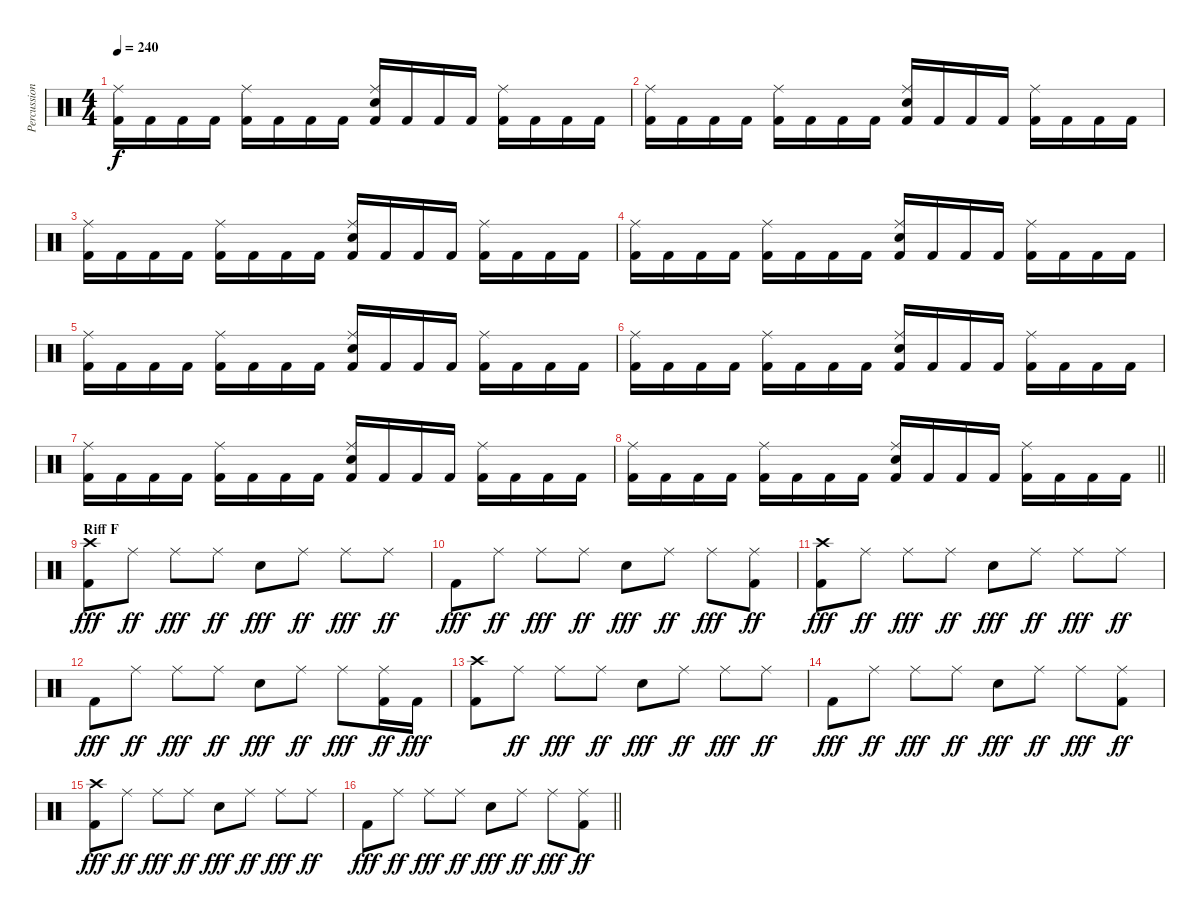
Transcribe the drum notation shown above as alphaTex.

\track ("Percussion" "Percussion") {instrument percussion}
\staff {score}
\articulation defaults
\ts (4 4)
\tempo 240
\clef neutral
\ks c
("Kick (hit) 2" "Ride (middle)").16{dy f} "Kick (hit) 2".16 "Kick (hit) 2".16 "Kick (hit) 2".16 ("Kick (hit) 2" "Ride (middle)").16 "Kick (hit) 2".16 "Kick (hit) 2".16 "Kick (hit) 2".16 ("Kick (hit) 2" "Ride (middle)" "Snare (hit) 2").16 "Kick (hit) 2".16 "Kick (hit) 2".16 "Kick (hit) 2".16 ("Kick (hit) 2" "Ride (middle)").16 "Kick (hit) 2".16 "Kick (hit) 2".16 "Kick (hit) 2".16 |
("Kick (hit) 2" "Ride (middle)").16 "Kick (hit) 2".16 "Kick (hit) 2".16 "Kick (hit) 2".16 ("Kick (hit) 2" "Ride (middle)").16 "Kick (hit) 2".16 "Kick (hit) 2".16 "Kick (hit) 2".16 ("Kick (hit) 2" "Ride (middle)" "Snare (hit) 2").16 "Kick (hit) 2".16 "Kick (hit) 2".16 "Kick (hit) 2".16 ("Kick (hit) 2" "Ride (middle)").16 "Kick (hit) 2".16 "Kick (hit) 2".16 "Kick (hit) 2".16 |
("Kick (hit) 2" "Ride (middle)").16 "Kick (hit) 2".16 "Kick (hit) 2".16 "Kick (hit) 2".16 ("Kick (hit) 2" "Ride (middle)").16 "Kick (hit) 2".16 "Kick (hit) 2".16 "Kick (hit) 2".16 ("Kick (hit) 2" "Ride (middle)" "Snare (hit) 2").16 "Kick (hit) 2".16 "Kick (hit) 2".16 "Kick (hit) 2".16 ("Kick (hit) 2" "Ride (middle)").16 "Kick (hit) 2".16 "Kick (hit) 2".16 "Kick (hit) 2".16 |
("Kick (hit) 2" "Ride (middle)").16 "Kick (hit) 2".16 "Kick (hit) 2".16 "Kick (hit) 2".16 ("Kick (hit) 2" "Ride (middle)").16 "Kick (hit) 2".16 "Kick (hit) 2".16 "Kick (hit) 2".16 ("Kick (hit) 2" "Ride (middle)" "Snare (hit) 2").16 "Kick (hit) 2".16 "Kick (hit) 2".16 "Kick (hit) 2".16 ("Kick (hit) 2" "Ride (middle)").16 "Kick (hit) 2".16 "Kick (hit) 2".16 "Kick (hit) 2".16 |
("Kick (hit) 2" "Ride (middle)").16 "Kick (hit) 2".16 "Kick (hit) 2".16 "Kick (hit) 2".16 ("Kick (hit) 2" "Ride (middle)").16 "Kick (hit) 2".16 "Kick (hit) 2".16 "Kick (hit) 2".16 ("Kick (hit) 2" "Ride (middle)" "Snare (hit) 2").16 "Kick (hit) 2".16 "Kick (hit) 2".16 "Kick (hit) 2".16 ("Kick (hit) 2" "Ride (middle)").16 "Kick (hit) 2".16 "Kick (hit) 2".16 "Kick (hit) 2".16 |
("Kick (hit) 2" "Ride (middle)").16 "Kick (hit) 2".16 "Kick (hit) 2".16 "Kick (hit) 2".16 ("Kick (hit) 2" "Ride (middle)").16 "Kick (hit) 2".16 "Kick (hit) 2".16 "Kick (hit) 2".16 ("Kick (hit) 2" "Ride (middle)" "Snare (hit) 2").16 "Kick (hit) 2".16 "Kick (hit) 2".16 "Kick (hit) 2".16 ("Kick (hit) 2" "Ride (middle)").16 "Kick (hit) 2".16 "Kick (hit) 2".16 "Kick (hit) 2".16 |
("Kick (hit) 2" "Ride (middle)").16 "Kick (hit) 2".16 "Kick (hit) 2".16 "Kick (hit) 2".16 ("Kick (hit) 2" "Ride (middle)").16 "Kick (hit) 2".16 "Kick (hit) 2".16 "Kick (hit) 2".16 ("Kick (hit) 2" "Ride (middle)" "Snare (hit) 2").16 "Kick (hit) 2".16 "Kick (hit) 2".16 "Kick (hit) 2".16 ("Kick (hit) 2" "Ride (middle)").16 "Kick (hit) 2".16 "Kick (hit) 2".16 "Kick (hit) 2".16 |
\barLineRight lightlight
("Kick (hit) 2" "Ride (middle)").16 "Kick (hit) 2".16 "Kick (hit) 2".16 "Kick (hit) 2".16 ("Kick (hit) 2" "Ride (middle)").16 "Kick (hit) 2".16 "Kick (hit) 2".16 "Kick (hit) 2".16 ("Kick (hit) 2" "Ride (middle)" "Snare (hit) 2").16 "Kick (hit) 2".16 "Kick (hit) 2".16 "Kick (hit) 2".16 ("Kick (hit) 2" "Ride (middle)").16 "Kick (hit) 2".16 "Kick (hit) 2".16 "Kick (hit) 2".16 |
\section ("" "Riff F")
("Kick (hit) 2" "Crash high (hit)").8{dy fff} "Ride (middle)".8{dy ff} "Ride (middle)".8{dy fff} "Ride (middle)".8{dy ff} "Snare (hit) 2".8{dy fff} "Ride (middle)".8{dy ff} "Ride (middle)".8{dy fff} "Ride (middle)".8{dy ff} |
"Kick (hit) 2".8{dy fff} "Ride (middle)".8{dy ff} "Ride (middle)".8{dy fff} "Ride (middle)".8{dy ff} "Snare (hit) 2".8{dy fff} "Ride (middle)".8{dy ff} "Ride (middle)".8{dy fff} ("Kick (hit) 2" "Ride (middle)").8{dy ff} |
("Kick (hit) 2" "Crash high (hit)").8{dy fff} "Ride (middle)".8{dy ff} "Ride (middle)".8{dy fff} "Ride (middle)".8{dy ff} "Snare (hit) 2".8{dy fff} "Ride (middle)".8{dy ff} "Ride (middle)".8{dy fff} "Ride (middle)".8{dy ff} |
"Kick (hit) 2".8{dy fff} "Ride (middle)".8{dy ff} "Ride (middle)".8{dy fff} "Ride (middle)".8{dy ff} "Snare (hit) 2".8{dy fff} "Ride (middle)".8{dy ff} "Ride (middle)".8{dy fff} ("Kick (hit) 2" "Ride (middle)").16{dy ff} "Kick (hit) 2".16{dy fff} |
("Kick (hit) 2" "Crash high (hit)").8 "Ride (middle)".8{dy ff} "Ride (middle)".8{dy fff} "Ride (middle)".8{dy ff} "Snare (hit) 2".8{dy fff} "Ride (middle)".8{dy ff} "Ride (middle)".8{dy fff} "Ride (middle)".8{dy ff} |
"Kick (hit) 2".8{dy fff} "Ride (middle)".8{dy ff} "Ride (middle)".8{dy fff} "Ride (middle)".8{dy ff} "Snare (hit) 2".8{dy fff} "Ride (middle)".8{dy ff} "Ride (middle)".8{dy fff} ("Kick (hit) 2" "Ride (middle)").8{dy ff} |
("Kick (hit) 2" "Crash high (hit)").8{dy fff} "Ride (middle)".8{dy ff} "Ride (middle)".8{dy fff} "Ride (middle)".8{dy ff} "Snare (hit) 2".8{dy fff} "Ride (middle)".8{dy ff} "Ride (middle)".8{dy fff} "Ride (middle)".8{dy ff} |
\barLineRight lightlight "Kick (hit) 2".8{dy fff} "Ride (middle)".8{dy ff} "Ride (middle)".8{dy fff} "Ride (middle)".8{dy ff} "Snare (hit) 2".8{dy fff} "Ride (middle)".8{dy ff} "Ride (middle)".8{dy fff}
("Kick (hit) 2" "Ride (middle)").8{dy ff}
